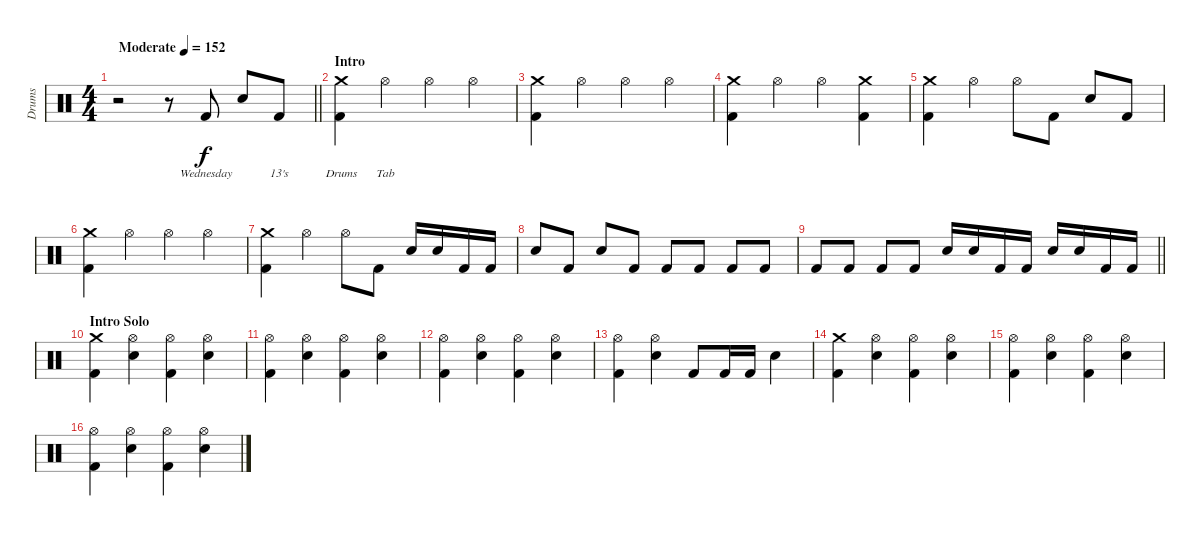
\track ("Drums" "Drums") {instrument percussion}
\staff {score}
\articulation defaults
\ts (4 4)
\tempo (152 "Moderate")
\clef neutral
\barLineRight lightlight
\ks c
r.2{dy f} r.8 "Kick (hit) 2".8{lyrics (0 "Wednesday") lyrics (1 "") lyrics (2 "") lyrics (3 "") lyrics (4 "")} "Electric Snare (hit)".8{lyrics (0 "") lyrics (1 "") lyrics (2 "") lyrics (3 "") lyrics (4 "")} "Kick (hit) 2".8{lyrics (0 "13's") lyrics (1 "") lyrics (2 "") lyrics (3 "") lyrics (4 "")} |
\section ("" "Intro")
("Crash medium (hit)" "Kick (hit) 2").4{lyrics (0 "Drums") lyrics (1 "") lyrics (2 "") lyrics (3 "") lyrics (4 "")} "Hi-Hat (open)".4{lyrics (0 "Tab") lyrics (1 "") lyrics (2 "") lyrics (3 "") lyrics (4 "")} "Hi-Hat (open)".4 "Hi-Hat (open)".4 |
("Crash medium (hit)" "Kick (hit) 2").4 "Hi-Hat (open)".4 "Hi-Hat (open)".4 "Hi-Hat (open)".4 |
("Crash medium (hit)" "Kick (hit) 2").4 "Hi-Hat (open)".4 "Hi-Hat (open)".4 ("Crash medium (hit)" "Kick (hit) 2").4 |
("Crash medium (hit)" "Kick (hit) 2").4 "Hi-Hat (open)".4 "Hi-Hat (open)".8 "Kick (hit) 2".8 "Electric Snare (hit)".8 "Kick (hit) 2".8 |
("Crash medium (hit)" "Kick (hit) 2").4 "Hi-Hat (open)".4 "Hi-Hat (open)".4 "Hi-Hat (open)".4 |
("Crash medium (hit)" "Kick (hit) 2").4 "Hi-Hat (open)".4 "Hi-Hat (open)".8 "Kick (hit) 2".8 "Electric Snare (hit)".16 "Electric Snare (hit)".16 "Kick (hit) 2".16 "Kick (hit) 2".16 |
"Electric Snare (hit)".8 "Kick (hit) 2".8 "Electric Snare (hit)".8 "Kick (hit) 2".8 "Kick (hit) 2".8 "Kick (hit) 2".8 "Kick (hit) 2".8 "Kick (hit) 2".8 |
\barLineRight lightlight "Kick (hit) 2".8 "Kick (hit) 2".8 "Kick (hit) 2".8 "Kick (hit) 2".8 "Electric Snare (hit)".16 "Electric Snare (hit)".16 "Kick (hit) 2".16 "Kick (hit) 2".16 "Electric Snare (hit)".16 "Electric Snare (hit)".16 "Kick (hit) 2".16 "Kick (hit) 2".16
|
\section ("" "Intro Solo")
("Crash medium (hit)" "Kick (hit) 2").4 ("Hi-Hat (open)" "Electric Snare (hit)").4 ("Hi-Hat (open)" "Kick (hit) 2").4 ("Hi-Hat (open)" "Electric Snare (hit)").4 |
("Hi-Hat (open)" "Kick (hit) 2").4 ("Hi-Hat (open)" "Electric Snare (hit)").4 ("Hi-Hat (open)" "Kick (hit) 2").4 ("Hi-Hat (open)" "Electric Snare (hit)").4 |
("Hi-Hat (open)" "Kick (hit) 2").4 ("Hi-Hat (open)" "Electric Snare (hit)").4 ("Hi-Hat (open)" "Kick (hit) 2").4 ("Hi-Hat (open)" "Electric Snare (hit)").4 |
("Hi-Hat (open)" "Kick (hit) 2").4 ("Hi-Hat (open)" "Electric Snare (hit)").4 "Kick (hit) 2".8 "Kick (hit) 2".16 "Kick (hit) 2".16 "Electric Snare (hit)".4 |
("Crash medium (hit)" "Kick (hit) 2").4 ("Hi-Hat (open)" "Electric Snare (hit)").4 ("Hi-Hat (open)" "Kick (hit) 2").4 ("Hi-Hat (open)" "Electric Snare (hit)").4 |
("Hi-Hat (open)" "Kick (hit) 2").4 ("Hi-Hat (open)" "Electric Snare (hit)").4 ("Hi-Hat (open)" "Kick (hit) 2").4 ("Hi-Hat (open)" "Electric Snare (hit)").4 |
("Hi-Hat (open)" "Kick (hit) 2").4 ("Hi-Hat (open)" "Electric Snare (hit)").4 ("Hi-Hat (open)" "Kick (hit) 2").4 ("Hi-Hat (open)" "Electric Snare (hit)").4
